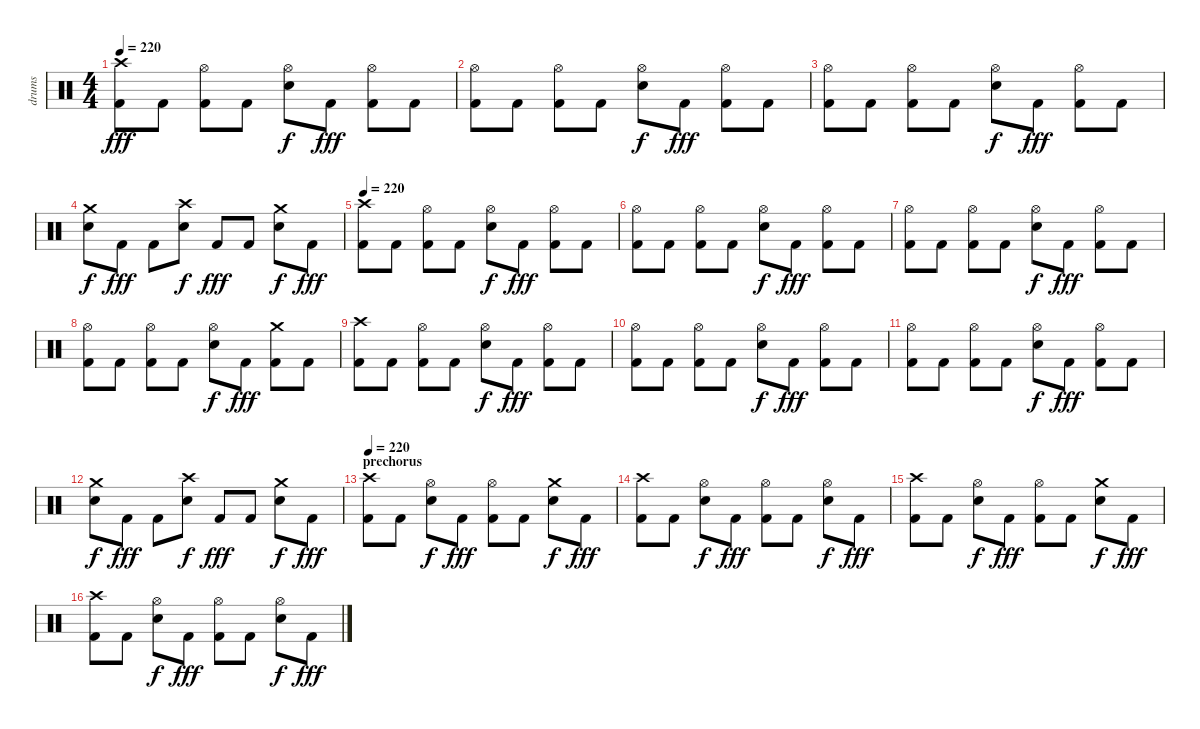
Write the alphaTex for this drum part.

\track ("drums" "drums") {instrument percussion}
\staff {score}
\articulation defaults
\ts (4 4)
\tempo 220
\clef neutral
\ks c
("Crash high (hit)" "Kick (hit) 2").8{dy fff} "Kick (hit) 2".8 ("Hi-Hat (open)" "Kick (hit) 2").8 "Kick (hit) 2".8 ("Hi-Hat (open)" "Snare (hit) 2").8{dy f} "Kick (hit) 2".8{dy fff} ("Hi-Hat (open)" "Kick (hit) 2").8 "Kick (hit) 2".8 |
("Hi-Hat (open)" "Kick (hit) 2").8 "Kick (hit) 2".8 ("Hi-Hat (open)" "Kick (hit) 2").8 "Kick (hit) 2".8 ("Hi-Hat (open)" "Snare (hit) 2").8{dy f} "Kick (hit) 2".8{dy fff} ("Hi-Hat (open)" "Kick (hit) 2").8 "Kick (hit) 2".8 |
("Hi-Hat (open)" "Kick (hit) 2").8 "Kick (hit) 2".8 ("Hi-Hat (open)" "Kick (hit) 2").8 "Kick (hit) 2".8 ("Hi-Hat (open)" "Snare (hit) 2").8{dy f} "Kick (hit) 2".8{dy fff} ("Hi-Hat (open)" "Kick (hit) 2").8 "Kick (hit) 2".8 |
("Crash medium (hit)" "Snare (hit) 2").8{dy f} "Kick (hit) 2".8{dy fff} "Kick (hit) 2".8 ("Crash high (hit)" "Snare (hit) 2").8{dy f} "Kick (hit) 2".8{dy fff} "Kick (hit) 2".8 ("Crash medium (hit)" "Snare (hit) 2").8{dy f} "Kick (hit) 2".8{dy fff} |
\tempo 220
("Crash high (hit)" "Kick (hit) 2").8 "Kick (hit) 2".8 ("Hi-Hat (open)" "Kick (hit) 2").8 "Kick (hit) 2".8 ("Hi-Hat (open)" "Snare (hit) 2").8{dy f} "Kick (hit) 2".8{dy fff} ("Hi-Hat (open)" "Kick (hit) 2").8 "Kick (hit) 2".8 |
("Hi-Hat (open)" "Kick (hit) 2").8 "Kick (hit) 2".8 ("Hi-Hat (open)" "Kick (hit) 2").8 "Kick (hit) 2".8 ("Hi-Hat (open)" "Snare (hit) 2").8{dy f} "Kick (hit) 2".8{dy fff} ("Hi-Hat (open)" "Kick (hit) 2").8 "Kick (hit) 2".8 |
("Hi-Hat (open)" "Kick (hit) 2").8 "Kick (hit) 2".8 ("Hi-Hat (open)" "Kick (hit) 2").8 "Kick (hit) 2".8 ("Hi-Hat (open)" "Snare (hit) 2").8{dy f} "Kick (hit) 2".8{dy fff} ("Hi-Hat (open)" "Kick (hit) 2").8 "Kick (hit) 2".8 |
("Hi-Hat (open)" "Kick (hit) 2").8 "Kick (hit) 2".8 ("Hi-Hat (open)" "Kick (hit) 2").8 "Kick (hit) 2".8 ("Hi-Hat (open)" "Snare (hit) 2").8{dy f} "Kick (hit) 2".8{dy fff} ("Crash medium (hit)" "Kick (hit) 2").8 "Kick (hit) 2".8 |
("Crash high (hit)" "Kick (hit) 2").8 "Kick (hit) 2".8 ("Hi-Hat (open)" "Kick (hit) 2").8 "Kick (hit) 2".8 ("Hi-Hat (open)" "Snare (hit) 2").8{dy f} "Kick (hit) 2".8{dy fff} ("Hi-Hat (open)" "Kick (hit) 2").8 "Kick (hit) 2".8 |
("Hi-Hat (open)" "Kick (hit) 2").8 "Kick (hit) 2".8 ("Hi-Hat (open)" "Kick (hit) 2").8 "Kick (hit) 2".8 ("Hi-Hat (open)" "Snare (hit) 2").8{dy f} "Kick (hit) 2".8{dy fff} ("Hi-Hat (open)" "Kick (hit) 2").8 "Kick (hit) 2".8 |
("Hi-Hat (open)" "Kick (hit) 2").8 "Kick (hit) 2".8 ("Hi-Hat (open)" "Kick (hit) 2").8 "Kick (hit) 2".8 ("Hi-Hat (open)" "Snare (hit) 2").8{dy f} "Kick (hit) 2".8{dy fff} ("Hi-Hat (open)" "Kick (hit) 2").8 "Kick (hit) 2".8 |
("Crash medium (hit)" "Snare (hit) 2").8{dy f} "Kick (hit) 2".8{dy fff} "Kick (hit) 2".8 ("Crash high (hit)" "Snare (hit) 2").8{dy f} "Kick (hit) 2".8{dy fff} "Kick (hit) 2".8 ("Crash medium (hit)" "Snare (hit) 2").8{dy f} "Kick (hit) 2".8{dy fff} |
\section ("" "prechorus")
\tempo 220
("Crash high (hit)" "Kick (hit) 2").8 "Kick (hit) 2".8 ("Hi-Hat (open)" "Snare (hit) 2").8{dy f} "Kick (hit) 2".8{dy fff} ("Hi-Hat (open)" "Kick (hit) 2").8 "Kick (hit) 2".8 ("Crash medium (hit)" "Snare (hit) 2").8{dy f} "Kick (hit) 2".8{dy fff} |
("Crash high (hit)" "Kick (hit) 2").8 "Kick (hit) 2".8 ("Hi-Hat (open)" "Snare (hit) 2").8{dy f} "Kick (hit) 2".8{dy fff} ("Hi-Hat (open)" "Kick (hit) 2").8 "Kick (hit) 2".8 ("Hi-Hat (open)" "Snare (hit) 2").8{dy f} "Kick (hit) 2".8{dy fff} |
("Crash high (hit)" "Kick (hit) 2").8 "Kick (hit) 2".8 ("Hi-Hat (open)" "Snare (hit) 2").8{dy f} "Kick (hit) 2".8{dy fff} ("Hi-Hat (open)" "Kick (hit) 2").8 "Kick (hit) 2".8 ("Crash medium (hit)" "Snare (hit) 2").8{dy f} "Kick (hit) 2".8{dy fff} |
("Crash high (hit)" "Kick (hit) 2").8 "Kick (hit) 2".8 ("Hi-Hat (open)" "Snare (hit) 2").8{dy f} "Kick (hit) 2".8{dy fff} ("Hi-Hat (open)" "Kick (hit) 2").8 "Kick (hit) 2".8 ("Hi-Hat (open)" "Snare (hit) 2").8{dy f} "Kick (hit) 2".8{dy fff}
